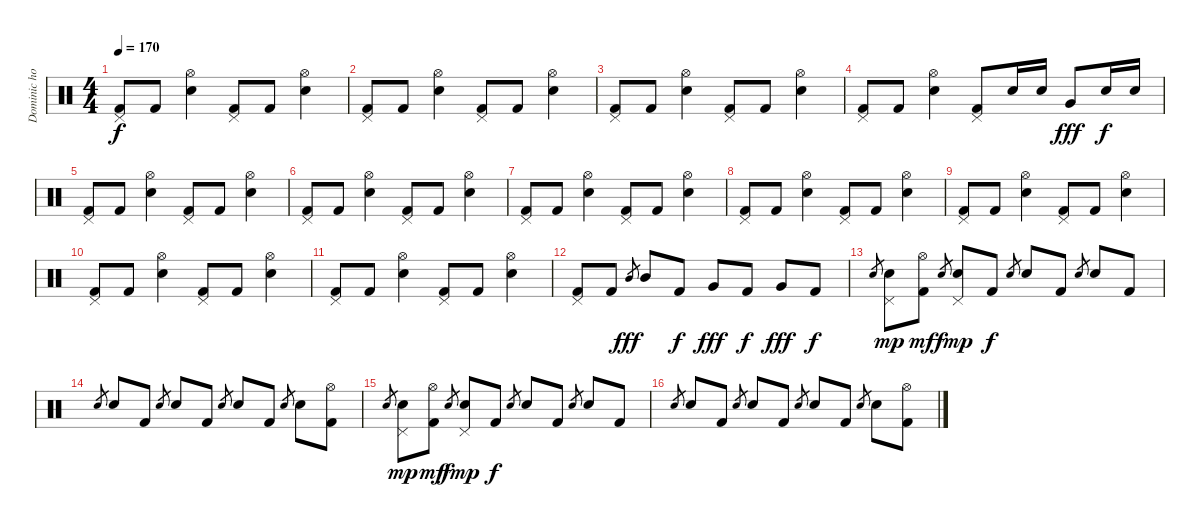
\track ("Dominic howard" "Dominic ho") {instrument percussion}
\staff {score}
\articulation defaults
\ts (4 4)
\tempo 170
\clef neutral
\ks c
("Pedal Hi-Hat (hit)" "Kick (hit) 2").8{dy f} "Kick (hit) 2".8 ("Hi-Hat (open)" "Electric Snare (hit)").4 ("Pedal Hi-Hat (hit)" "Kick (hit) 2").8 "Kick (hit) 2".8 ("Hi-Hat (open)" "Electric Snare (hit)").4 |
("Pedal Hi-Hat (hit)" "Kick (hit) 2").8 "Kick (hit) 2".8 ("Hi-Hat (open)" "Electric Snare (hit)").4 ("Pedal Hi-Hat (hit)" "Kick (hit) 2").8 "Kick (hit) 2".8 ("Hi-Hat (open)" "Electric Snare (hit)").4 |
("Pedal Hi-Hat (hit)" "Kick (hit) 2").8 "Kick (hit) 2".8 ("Hi-Hat (open)" "Electric Snare (hit)").4 ("Pedal Hi-Hat (hit)" "Kick (hit) 2").8 "Kick (hit) 2".8 ("Hi-Hat (open)" "Electric Snare (hit)").4 |
("Pedal Hi-Hat (hit)" "Kick (hit) 2").8 "Kick (hit) 2".8 ("Hi-Hat (open)" "Electric Snare (hit)").4 ("Pedal Hi-Hat (hit)" "Kick (hit) 2").8 "Electric Snare (hit)".16 "Electric Snare (hit)".16 "Very Low Tom (hit)".8{dy fff} "Electric Snare (hit)".16{dy f} "Electric Snare (hit)".16 |
("Pedal Hi-Hat (hit)" "Kick (hit) 2").8 "Kick (hit) 2".8 ("Hi-Hat (open)" "Electric Snare (hit)").4 ("Pedal Hi-Hat (hit)" "Kick (hit) 2").8 "Kick (hit) 2".8 ("Hi-Hat (open)" "Electric Snare (hit)").4 |
("Pedal Hi-Hat (hit)" "Kick (hit) 2").8 "Kick (hit) 2".8 ("Hi-Hat (open)" "Electric Snare (hit)").4 ("Pedal Hi-Hat (hit)" "Kick (hit) 2").8 "Kick (hit) 2".8 ("Hi-Hat (open)" "Electric Snare (hit)").4 |
("Pedal Hi-Hat (hit)" "Kick (hit) 2").8 "Kick (hit) 2".8 ("Hi-Hat (open)" "Electric Snare (hit)").4 ("Pedal Hi-Hat (hit)" "Kick (hit) 2").8 "Kick (hit) 2".8 ("Hi-Hat (open)" "Electric Snare (hit)").4 |
("Pedal Hi-Hat (hit)" "Kick (hit) 2").8 "Kick (hit) 2".8 ("Hi-Hat (open)" "Electric Snare (hit)").4 ("Pedal Hi-Hat (hit)" "Kick (hit) 2").8 "Kick (hit) 2".8 ("Hi-Hat (open)" "Electric Snare (hit)").4 |
("Pedal Hi-Hat (hit)" "Kick (hit) 2").8 "Kick (hit) 2".8 ("Hi-Hat (open)" "Electric Snare (hit)").4 ("Pedal Hi-Hat (hit)" "Kick (hit) 2").8 "Kick (hit) 2".8 ("Hi-Hat (open)" "Electric Snare (hit)").4 |
("Pedal Hi-Hat (hit)" "Kick (hit) 2").8 "Kick (hit) 2".8 ("Hi-Hat (open)" "Electric Snare (hit)").4 ("Pedal Hi-Hat (hit)" "Kick (hit) 2").8 "Kick (hit) 2".8 ("Hi-Hat (open)" "Electric Snare (hit)").4 |
("Pedal Hi-Hat (hit)" "Kick (hit) 2").8 "Kick (hit) 2".8 ("Hi-Hat (open)" "Electric Snare (hit)").4 ("Pedal Hi-Hat (hit)" "Kick (hit) 2").8 "Kick (hit) 2".8 ("Hi-Hat (open)" "Electric Snare (hit)").4 |
("Pedal Hi-Hat (hit)" "Kick (hit) 2").8 "Kick (hit) 2".8 "Mid Tom (hit)".8{gr dy fff} "Mid Tom (hit)".8 "Kick (hit) 2".8{dy f} "Very Low Tom (hit)".8{dy fff} "Kick (hit) 2".8{dy f} "Very Low Tom (hit)".8{dy fff} "Kick (hit) 2".8{dy f} |
"Electric Snare (hit)".8{gr} ("Pedal Hi-Hat (hit)" "Electric Snare (hit)").8{dy mp} ("Hi-Hat (open)" "Kick (hit) 2").8{dy mf} "Electric Snare (hit)".8{gr dy f} ("Pedal Hi-Hat (hit)" "Electric Snare (hit)").8{dy mp} "Kick (hit) 2".8{dy f} "Electric Snare (hit)".8{gr} "Electric Snare (hit)".8 "Kick (hit) 2".8 "Electric Snare (hit)".8{gr} "Electric Snare (hit)".8 "Kick (hit) 2".8 |
"Electric Snare (hit)".8{gr} "Electric Snare (hit)".8 "Kick (hit) 2".8 "Electric Snare (hit)".8{gr} "Electric Snare (hit)".8 "Kick (hit) 2".8 "Electric Snare (hit)".8{gr} "Electric Snare (hit)".8 "Kick (hit) 2".8 "Electric Snare (hit)".8{gr} "Electric Snare (hit)".8 ("Hi-Hat (open)" "Kick (hit) 2").8 |
"Electric Snare (hit)".8{gr} ("Pedal Hi-Hat (hit)" "Electric Snare (hit)").8{dy mp} ("Hi-Hat (open)" "Kick (hit) 2").8{dy mf} "Electric Snare (hit)".8{gr dy f} ("Pedal Hi-Hat (hit)" "Electric Snare (hit)").8{dy mp} "Kick (hit) 2".8{dy f} "Electric Snare (hit)".8{gr} "Electric Snare (hit)".8 "Kick (hit) 2".8 "Electric Snare (hit)".8{gr} "Electric Snare (hit)".8 "Kick (hit) 2".8 |
"Electric Snare (hit)".8{gr} "Electric Snare (hit)".8 "Kick (hit) 2".8 "Electric Snare (hit)".8{gr} "Electric Snare (hit)".8 "Kick (hit) 2".8 "Electric Snare (hit)".8{gr} "Electric Snare (hit)".8 "Kick (hit) 2".8 "Electric Snare (hit)".8{gr} "Electric Snare (hit)".8 ("Hi-Hat (open)" "Kick (hit) 2").8
